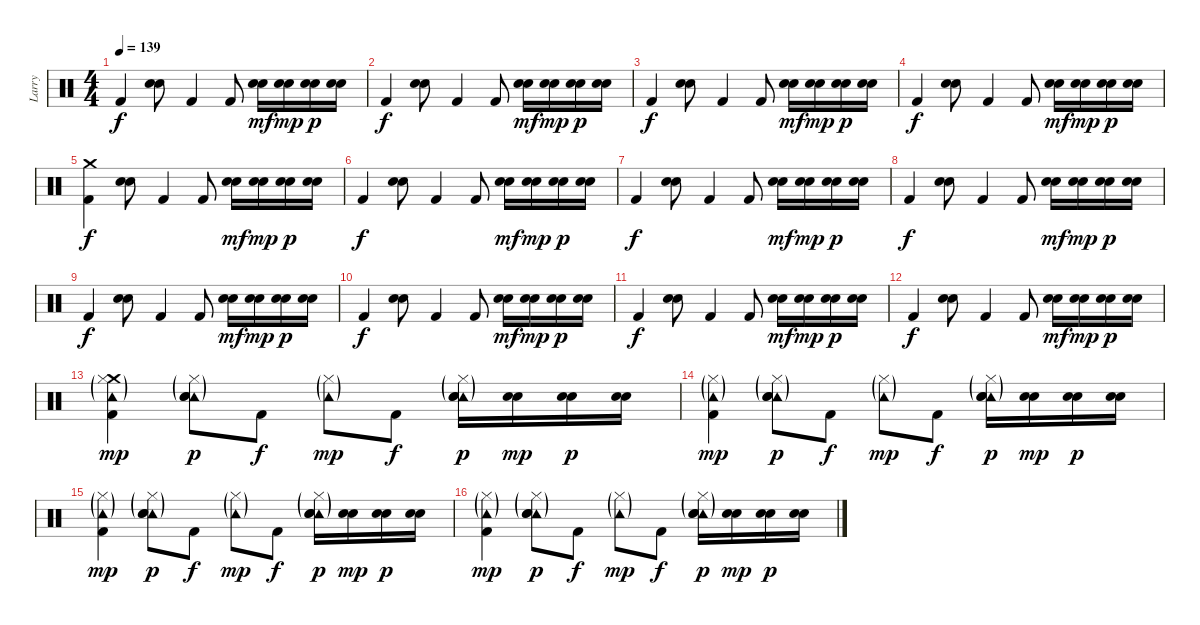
\track ("Larry" "Larry") {instrument percussion}
\staff {score}
\articulation defaults
\ts (4 4)
\tempo 139
\clef neutral
\ks c "Kick (hit) 2".4{dy f}
("Snare (hit) 2" "Electric Snare (hit)").8 "Kick (hit) 2".4 "Kick (hit) 2".8 ("Snare (hit) 2" "Electric Snare (hit)").16{dy mf} ("Snare (hit) 2" "Electric Snare (hit)").16{dy mp} ("Snare (hit) 2" "Electric Snare (hit)").16{dy p} ("Snare (hit) 2" "Electric Snare (hit)").16 |
"Kick (hit) 2".4{dy f} ("Snare (hit) 2" "Electric Snare (hit)").8 "Kick (hit) 2".4 "Kick (hit) 2".8 ("Snare (hit) 2" "Electric Snare (hit)").16{dy mf} ("Snare (hit) 2" "Electric Snare (hit)").16{dy mp} ("Snare (hit) 2" "Electric Snare (hit)").16{dy p} ("Snare (hit) 2" "Electric Snare (hit)").16 |
"Kick (hit) 2".4{dy f} ("Snare (hit) 2" "Electric Snare (hit)").8 "Kick (hit) 2".4 "Kick (hit) 2".8 ("Snare (hit) 2" "Electric Snare (hit)").16{dy mf} ("Snare (hit) 2" "Electric Snare (hit)").16{dy mp} ("Snare (hit) 2" "Electric Snare (hit)").16{dy p} ("Snare (hit) 2" "Electric Snare (hit)").16 |
"Kick (hit) 2".4{dy f} ("Snare (hit) 2" "Electric Snare (hit)").8 "Kick (hit) 2".4 "Kick (hit) 2".8 ("Snare (hit) 2" "Electric Snare (hit)").16{dy mf} ("Snare (hit) 2" "Electric Snare (hit)").16{dy mp} ("Snare (hit) 2" "Electric Snare (hit)").16{dy p} ("Snare (hit) 2" "Electric Snare (hit)").16 |
("Crash medium (hit)" "Kick (hit) 2").4{dy f} ("Snare (hit) 2" "Electric Snare (hit)").8 "Kick (hit) 2".4 "Kick (hit) 2".8 ("Snare (hit) 2" "Electric Snare (hit)").16{dy mf} ("Snare (hit) 2" "Electric Snare (hit)").16{dy mp} ("Snare (hit) 2" "Electric Snare (hit)").16{dy p} ("Snare (hit) 2" "Electric Snare (hit)").16 |
"Kick (hit) 2".4{dy f} ("Snare (hit) 2" "Electric Snare (hit)").8 "Kick (hit) 2".4 "Kick (hit) 2".8 ("Snare (hit) 2" "Electric Snare (hit)").16{dy mf} ("Snare (hit) 2" "Electric Snare (hit)").16{dy mp} ("Snare (hit) 2" "Electric Snare (hit)").16{dy p} ("Snare (hit) 2" "Electric Snare (hit)").16 |
"Kick (hit) 2".4{dy f} ("Snare (hit) 2" "Electric Snare (hit)").8 "Kick (hit) 2".4 "Kick (hit) 2".8 ("Snare (hit) 2" "Electric Snare (hit)").16{dy mf} ("Snare (hit) 2" "Electric Snare (hit)").16{dy mp} ("Snare (hit) 2" "Electric Snare (hit)").16{dy p} ("Snare (hit) 2" "Electric Snare (hit)").16 |
"Kick (hit) 2".4{dy f} ("Snare (hit) 2" "Electric Snare (hit)").8 "Kick (hit) 2".4 "Kick (hit) 2".8 ("Snare (hit) 2" "Electric Snare (hit)").16{dy mf} ("Snare (hit) 2" "Electric Snare (hit)").16{dy mp} ("Snare (hit) 2" "Electric Snare (hit)").16{dy p} ("Snare (hit) 2" "Electric Snare (hit)").16 |
"Kick (hit) 2".4{dy f} ("Snare (hit) 2" "Electric Snare (hit)").8 "Kick (hit) 2".4 "Kick (hit) 2".8 ("Snare (hit) 2" "Electric Snare (hit)").16{dy mf} ("Snare (hit) 2" "Electric Snare (hit)").16{dy mp} ("Snare (hit) 2" "Electric Snare (hit)").16{dy p} ("Snare (hit) 2" "Electric Snare (hit)").16 |
"Kick (hit) 2".4{dy f} ("Snare (hit) 2" "Electric Snare (hit)").8 "Kick (hit) 2".4 "Kick (hit) 2".8 ("Snare (hit) 2" "Electric Snare (hit)").16{dy mf} ("Snare (hit) 2" "Electric Snare (hit)").16{dy mp} ("Snare (hit) 2" "Electric Snare (hit)").16{dy p} ("Snare (hit) 2" "Electric Snare (hit)").16 |
"Kick (hit) 2".4{dy f} ("Snare (hit) 2" "Electric Snare (hit)").8 "Kick (hit) 2".4 "Kick (hit) 2".8 ("Snare (hit) 2" "Electric Snare (hit)").16{dy mf} ("Snare (hit) 2" "Electric Snare (hit)").16{dy mp} ("Snare (hit) 2" "Electric Snare (hit)").16{dy p} ("Snare (hit) 2" "Electric Snare (hit)").16 |
"Kick (hit) 2".4{dy f} ("Snare (hit) 2" "Electric Snare (hit)").8 "Kick (hit) 2".4 "Kick (hit) 2".8 ("Snare (hit) 2" "Electric Snare (hit)").16{dy mf} ("Snare (hit) 2" "Electric Snare (hit)").16{dy mp} ("Snare (hit) 2" "Electric Snare (hit)").16{dy p} ("Snare (hit) 2" "Electric Snare (hit)").16 |
("Crash medium (hit)" "Tambourine (hit)"{g} "Kick (hit) 2" "Hi-Hat (closed)"{g}).4{dy mp} ("Tambourine (hit)"{g} "Snare (hit) 2" "Electric Snare (hit)" "Hi-Hat (closed)"{g}).8{dy p} "Kick (hit) 2".8{dy f} ("Tambourine (hit)"{g} "Hi-Hat (closed)"{g}).8{dy mp} "Kick (hit) 2".8{dy f} ("Tambourine (hit)"{g} "Snare (hit) 2" "Electric Snare (hit)" "Hi-Hat (closed)"{g}).16{dy p} ("Snare (hit) 2" "Electric Snare (hit)").16{dy mp} ("Snare (hit) 2" "Electric Snare (hit)").16{dy p} ("Snare (hit) 2" "Electric Snare (hit)").16 |
("Tambourine (hit)"{g} "Kick (hit) 2" "Hi-Hat (closed)"{g}).4{dy mp} ("Tambourine (hit)"{g} "Snare (hit) 2" "Electric Snare (hit)" "Hi-Hat (closed)"{g}).8{dy p} "Kick (hit) 2".8{dy f} ("Tambourine (hit)"{g} "Hi-Hat (closed)"{g}).8{dy mp} "Kick (hit) 2".8{dy f} ("Tambourine (hit)"{g} "Snare (hit) 2" "Electric Snare (hit)" "Hi-Hat (closed)"{g}).16{dy p} ("Snare (hit) 2" "Electric Snare (hit)").16{dy mp} ("Snare (hit) 2" "Electric Snare (hit)").16{dy p} ("Snare (hit) 2" "Electric Snare (hit)").16 |
("Tambourine (hit)"{g} "Kick (hit) 2" "Hi-Hat (closed)"{g}).4{dy mp} ("Tambourine (hit)"{g} "Snare (hit) 2" "Electric Snare (hit)" "Hi-Hat (closed)"{g}).8{dy p} "Kick (hit) 2".8{dy f} ("Tambourine (hit)"{g} "Hi-Hat (closed)"{g}).8{dy mp} "Kick (hit) 2".8{dy f} ("Tambourine (hit)"{g} "Snare (hit) 2" "Electric Snare (hit)" "Hi-Hat (closed)"{g}).16{dy p} ("Snare (hit) 2" "Electric Snare (hit)").16{dy mp} ("Snare (hit) 2" "Electric Snare (hit)").16{dy p} ("Snare (hit) 2" "Electric Snare (hit)").16 |
("Tambourine (hit)"{g} "Kick (hit) 2" "Hi-Hat (closed)"{g}).4{dy mp} ("Tambourine (hit)"{g} "Snare (hit) 2" "Electric Snare (hit)" "Hi-Hat (closed)"{g}).8{dy p} "Kick (hit) 2".8{dy f} ("Tambourine (hit)"{g} "Hi-Hat (closed)"{g}).8{dy mp} "Kick (hit) 2".8{dy f} ("Tambourine (hit)"{g} "Snare (hit) 2" "Electric Snare (hit)" "Hi-Hat (closed)"{g}).16{dy p} ("Snare (hit) 2" "Electric Snare (hit)").16{dy mp} ("Snare (hit) 2" "Electric Snare (hit)").16{dy p} ("Snare (hit) 2" "Electric Snare (hit)").16
